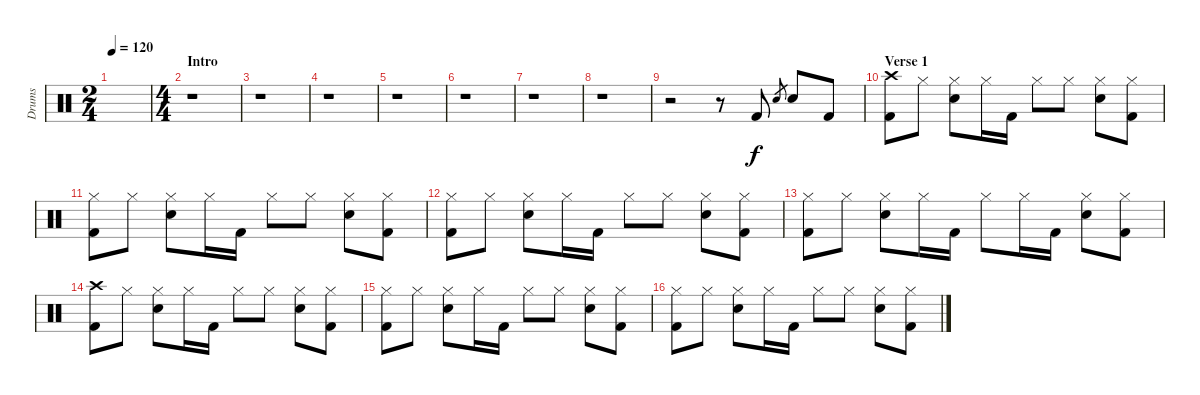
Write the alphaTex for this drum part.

\track ("Drums" "Drums") {instrument percussion}
\staff {score}
\articulation defaults
\ts (2 4)
\tempo 120
\clef neutral
\ks c
|
\ts (4 4)
\section ("" "Intro")
r.1 |
r.1 |
r.1 |
r.1 |
r.1 |
r.1 |
r.1 |
r.2 r.8 "Kick (hit) 2".8 "Electric Snare (hit)".8{gr} "Electric Snare (hit)".8 "Kick (hit) 2".8 |
\section ("" "Verse 1")
("Crash high (hit)" "Kick (hit) 2").8 "Hi-Hat (closed)".8 ("Hi-Hat (closed)" "Electric Snare (hit)").8 "Hi-Hat (closed)".16 "Kick (hit) 2".16 "Hi-Hat (closed)".8 "Hi-Hat (closed)".8 ("Hi-Hat (closed)" "Electric Snare (hit)").8 ("Hi-Hat (closed)" "Kick (hit) 2").8 |
("Hi-Hat (closed)" "Kick (hit) 2").8 "Hi-Hat (closed)".8 ("Hi-Hat (closed)" "Electric Snare (hit)").8 "Hi-Hat (closed)".16 "Kick (hit) 2".16 "Hi-Hat (closed)".8 "Hi-Hat (closed)".8 ("Hi-Hat (closed)" "Electric Snare (hit)").8 ("Hi-Hat (closed)" "Kick (hit) 2").8 |
("Hi-Hat (closed)" "Kick (hit) 2").8 "Hi-Hat (closed)".8 ("Hi-Hat (closed)" "Electric Snare (hit)").8 "Hi-Hat (closed)".16 "Kick (hit) 2".16 "Hi-Hat (closed)".8 "Hi-Hat (closed)".8 ("Hi-Hat (closed)" "Electric Snare (hit)").8 ("Hi-Hat (closed)" "Kick (hit) 2").8 |
("Hi-Hat (closed)" "Kick (hit) 2").8 "Hi-Hat (closed)".8 ("Hi-Hat (closed)" "Electric Snare (hit)").8 "Hi-Hat (closed)".16 "Kick (hit) 2".16 "Hi-Hat (closed)".8 "Hi-Hat (closed)".16 "Kick (hit) 2".16 ("Hi-Hat (closed)" "Electric Snare (hit)").8 ("Hi-Hat (closed)" "Kick (hit) 2").8 |
("Crash high (hit)" "Kick (hit) 2").8 "Hi-Hat (closed)".8 ("Hi-Hat (closed)" "Electric Snare (hit)").8 "Hi-Hat (closed)".16 "Kick (hit) 2".16 "Hi-Hat (closed)".8 "Hi-Hat (closed)".8 ("Hi-Hat (closed)" "Electric Snare (hit)").8 ("Hi-Hat (closed)" "Kick (hit) 2").8 |
("Hi-Hat (closed)" "Kick (hit) 2").8 "Hi-Hat (closed)".8 ("Hi-Hat (closed)" "Electric Snare (hit)").8 "Hi-Hat (closed)".16 "Kick (hit) 2".16 "Hi-Hat (closed)".8 "Hi-Hat (closed)".8 ("Hi-Hat (closed)" "Electric Snare (hit)").8 ("Hi-Hat (closed)" "Kick (hit) 2").8 |
("Hi-Hat (closed)" "Kick (hit) 2").8 "Hi-Hat (closed)".8 ("Hi-Hat (closed)" "Electric Snare (hit)").8 "Hi-Hat (closed)".16 "Kick (hit) 2".16 "Hi-Hat (closed)".8 "Hi-Hat (closed)".8 ("Hi-Hat (closed)" "Electric Snare (hit)").8 ("Hi-Hat (closed)" "Kick (hit) 2").8
